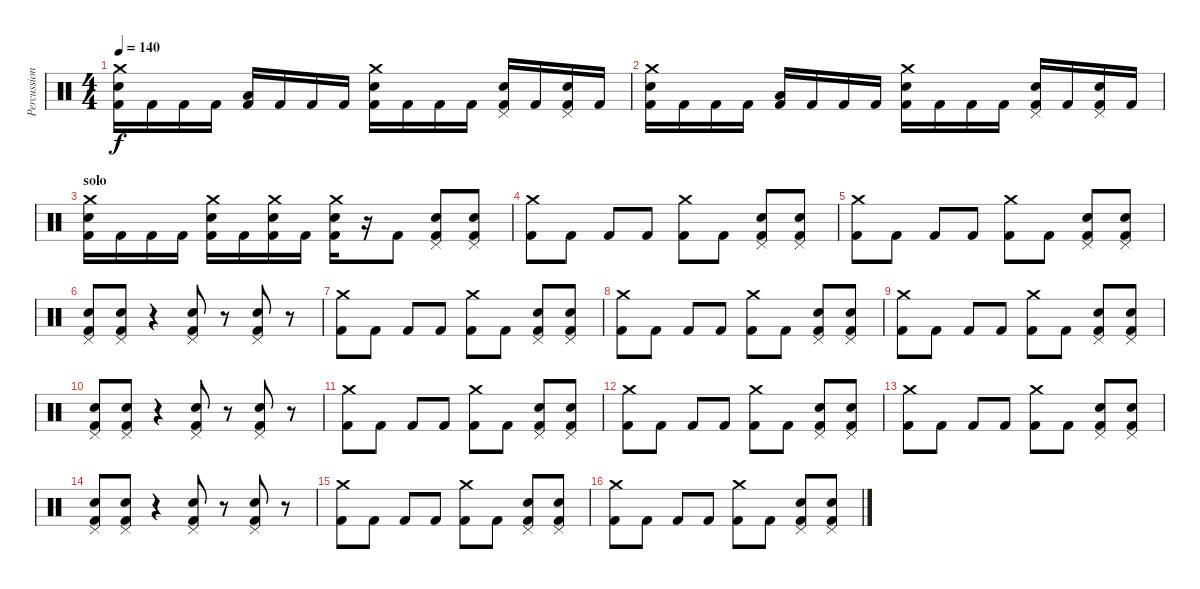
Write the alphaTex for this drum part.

\track ("Percussions" "Percussion") {instrument percussion}
\staff {score}
\articulation defaults
\ts (4 4)
\tempo 140
\clef neutral
\ks c
("Crash medium (hit)" "Electric Snare (hit)" "Kick (hit) 2").16{dy f} "Kick (hit) 2".16 "Kick (hit) 2".16 "Kick (hit) 2".16 ("Low Tom (hit)" "Kick (hit) 2").16 "Kick (hit) 2".16 "Kick (hit) 2".16 "Kick (hit) 2".16 ("Crash medium (hit)" "Electric Snare (hit)" "Kick (hit) 2").16 "Kick (hit) 2".16 "Kick (hit) 2".16 "Kick (hit) 2".16 ("Pedal Hi-Hat (hit)" "Electric Snare (hit)" "Kick (hit) 2").16 "Kick (hit) 2".16 ("Pedal Hi-Hat (hit)" "Electric Snare (hit)" "Kick (hit) 2").16 "Kick (hit) 2".16 |
("Crash medium (hit)" "Electric Snare (hit)" "Kick (hit) 2").16 "Kick (hit) 2".16 "Kick (hit) 2".16 "Kick (hit) 2".16 ("Low Tom (hit)" "Kick (hit) 2").16 "Kick (hit) 2".16 "Kick (hit) 2".16 "Kick (hit) 2".16 ("Crash medium (hit)" "Electric Snare (hit)" "Kick (hit) 2").16 "Kick (hit) 2".16 "Kick (hit) 2".16 "Kick (hit) 2".16 ("Pedal Hi-Hat (hit)" "Electric Snare (hit)" "Kick (hit) 2").16 "Kick (hit) 2".16 ("Pedal Hi-Hat (hit)" "Electric Snare (hit)" "Kick (hit) 2").16 "Kick (hit) 2".16 |
\section ("" "solo")
("Crash medium (hit)" "Electric Snare (hit)" "Kick (hit) 2").16 "Kick (hit) 2".16 "Kick (hit) 2".16 "Kick (hit) 2".16 ("Crash medium (hit)" "Electric Snare (hit)" "Kick (hit) 2").16 "Kick (hit) 2".16 ("Crash medium (hit)" "Electric Snare (hit)" "Kick (hit) 2").16 "Kick (hit) 2".16 ("Crash medium (hit)" "Electric Snare (hit)" "Kick (hit) 2").16 r.16 "Kick (hit) 2".8 ("Pedal Hi-Hat (hit)" "Electric Snare (hit)" "Kick (hit) 2").8 ("Pedal Hi-Hat (hit)" "Electric Snare (hit)" "Kick (hit) 2").8 |
("Crash medium (hit)" "Kick (hit) 2").8 "Kick (hit) 2".8 "Kick (hit) 2".8 "Kick (hit) 2".8 ("Crash medium (hit)" "Kick (hit) 2").8 "Kick (hit) 2".8 ("Pedal Hi-Hat (hit)" "Electric Snare (hit)" "Kick (hit) 2").8 ("Pedal Hi-Hat (hit)" "Electric Snare (hit)" "Kick (hit) 2").8 |
("Crash medium (hit)" "Kick (hit) 2").8 "Kick (hit) 2".8 "Kick (hit) 2".8 "Kick (hit) 2".8 ("Crash medium (hit)" "Kick (hit) 2").8 "Kick (hit) 2".8 ("Pedal Hi-Hat (hit)" "Electric Snare (hit)" "Kick (hit) 2").8 ("Pedal Hi-Hat (hit)" "Electric Snare (hit)" "Kick (hit) 2").8 |
("Pedal Hi-Hat (hit)" "Electric Snare (hit)" "Kick (hit) 2").8 ("Pedal Hi-Hat (hit)" "Electric Snare (hit)" "Kick (hit) 2").8 r.4 ("Pedal Hi-Hat (hit)" "Electric Snare (hit)" "Kick (hit) 2").8 r.8 ("Pedal Hi-Hat (hit)" "Electric Snare (hit)" "Kick (hit) 2").8 r.8 |
("Crash medium (hit)" "Kick (hit) 2").8 "Kick (hit) 2".8 "Kick (hit) 2".8 "Kick (hit) 2".8 ("Crash medium (hit)" "Kick (hit) 2").8 "Kick (hit) 2".8 ("Pedal Hi-Hat (hit)" "Electric Snare (hit)" "Kick (hit) 2").8 ("Pedal Hi-Hat (hit)" "Electric Snare (hit)" "Kick (hit) 2").8 |
("Crash medium (hit)" "Kick (hit) 2").8 "Kick (hit) 2".8 "Kick (hit) 2".8 "Kick (hit) 2".8 ("Crash medium (hit)" "Kick (hit) 2").8 "Kick (hit) 2".8 ("Pedal Hi-Hat (hit)" "Electric Snare (hit)" "Kick (hit) 2").8 ("Pedal Hi-Hat (hit)" "Electric Snare (hit)" "Kick (hit) 2").8 |
("Crash medium (hit)" "Kick (hit) 2").8 "Kick (hit) 2".8 "Kick (hit) 2".8 "Kick (hit) 2".8 ("Crash medium (hit)" "Kick (hit) 2").8 "Kick (hit) 2".8 ("Pedal Hi-Hat (hit)" "Electric Snare (hit)" "Kick (hit) 2").8 ("Pedal Hi-Hat (hit)" "Electric Snare (hit)" "Kick (hit) 2").8 |
("Pedal Hi-Hat (hit)" "Electric Snare (hit)" "Kick (hit) 2").8 ("Pedal Hi-Hat (hit)" "Electric Snare (hit)" "Kick (hit) 2").8 r.4 ("Pedal Hi-Hat (hit)" "Electric Snare (hit)" "Kick (hit) 2").8 r.8 ("Pedal Hi-Hat (hit)" "Electric Snare (hit)" "Kick (hit) 2").8 r.8 |
("Crash medium (hit)" "Kick (hit) 2").8 "Kick (hit) 2".8 "Kick (hit) 2".8 "Kick (hit) 2".8 ("Crash medium (hit)" "Kick (hit) 2").8 "Kick (hit) 2".8 ("Pedal Hi-Hat (hit)" "Electric Snare (hit)" "Kick (hit) 2").8 ("Pedal Hi-Hat (hit)" "Electric Snare (hit)" "Kick (hit) 2").8 |
("Crash medium (hit)" "Kick (hit) 2").8 "Kick (hit) 2".8 "Kick (hit) 2".8 "Kick (hit) 2".8 ("Crash medium (hit)" "Kick (hit) 2").8 "Kick (hit) 2".8 ("Pedal Hi-Hat (hit)" "Electric Snare (hit)" "Kick (hit) 2").8 ("Pedal Hi-Hat (hit)" "Electric Snare (hit)" "Kick (hit) 2").8 |
("Crash medium (hit)" "Kick (hit) 2").8 "Kick (hit) 2".8 "Kick (hit) 2".8 "Kick (hit) 2".8 ("Crash medium (hit)" "Kick (hit) 2").8 "Kick (hit) 2".8 ("Pedal Hi-Hat (hit)" "Electric Snare (hit)" "Kick (hit) 2").8 ("Pedal Hi-Hat (hit)" "Electric Snare (hit)" "Kick (hit) 2").8 |
("Pedal Hi-Hat (hit)" "Electric Snare (hit)" "Kick (hit) 2").8 ("Pedal Hi-Hat (hit)" "Electric Snare (hit)" "Kick (hit) 2").8 r.4 ("Pedal Hi-Hat (hit)" "Electric Snare (hit)" "Kick (hit) 2").8 r.8 ("Pedal Hi-Hat (hit)" "Electric Snare (hit)" "Kick (hit) 2").8 r.8 |
("Crash medium (hit)" "Kick (hit) 2").8 "Kick (hit) 2".8 "Kick (hit) 2".8 "Kick (hit) 2".8 ("Crash medium (hit)" "Kick (hit) 2").8 "Kick (hit) 2".8 ("Pedal Hi-Hat (hit)" "Electric Snare (hit)" "Kick (hit) 2").8 ("Pedal Hi-Hat (hit)" "Electric Snare (hit)" "Kick (hit) 2").8 |
("Crash medium (hit)" "Kick (hit) 2").8 "Kick (hit) 2".8 "Kick (hit) 2".8 "Kick (hit) 2".8 ("Crash medium (hit)" "Kick (hit) 2").8 "Kick (hit) 2".8 ("Pedal Hi-Hat (hit)" "Electric Snare (hit)" "Kick (hit) 2").8 ("Pedal Hi-Hat (hit)" "Electric Snare (hit)" "Kick (hit) 2").8
